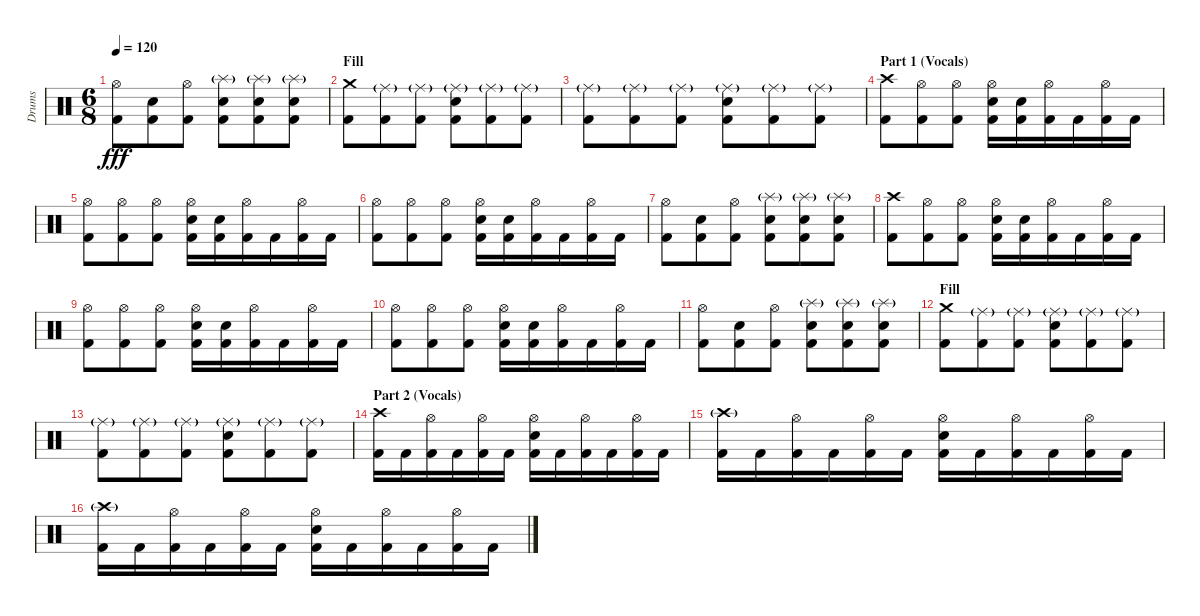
\track ("Drums" "Drums") {instrument percussion}
\staff {score}
\articulation defaults
\ts (6 8)
\tempo 120
\clef neutral
\ks c
("Hi-Hat (open)" "Kick (hit) 2").8{dy fff} ("Electric Snare (hit)" "Kick (hit) 2").8 ("Hi-Hat (open)" "Kick (hit) 2").8 ("Splash (hit)"{g} "Electric Snare (hit)" "Kick (hit) 2").8 ("Splash (hit)"{g} "Electric Snare (hit)" "Kick (hit) 2").8 ("Splash (hit)"{g} "Electric Snare (hit)" "Kick (hit) 2").8 |
\section ("" "Fill")
("Crash medium (hit)" "Kick (hit) 2").8 ("Ride (middle)"{g} "Kick (hit) 2").8 ("Ride (middle)"{g} "Kick (hit) 2").8 ("Ride (middle)"{g} "Electric Snare (hit)" "Kick (hit) 2").8 ("Ride (middle)"{g} "Kick (hit) 2").8 ("Ride (middle)"{g} "Kick (hit) 2").8 |
("Ride (middle)"{g} "Kick (hit) 2").8 ("Ride (middle)"{g} "Kick (hit) 2").8 ("Ride (middle)"{g} "Kick (hit) 2").8 ("Ride (middle)"{g} "Electric Snare (hit)" "Kick (hit) 2").8 ("Ride (middle)"{g} "Kick (hit) 2").8 ("Ride (middle)"{g} "Kick (hit) 2").8 |
\section ("" "Part 1 (Vocals)")
("Crash high (hit)" "Kick (hit) 2").8 ("Hi-Hat (open)" "Kick (hit) 2").8 ("Hi-Hat (open)" "Kick (hit) 2").8 ("Hi-Hat (open)" "Electric Snare (hit)" "Kick (hit) 2").16 ("Electric Snare (hit)" "Kick (hit) 2").16 ("Hi-Hat (open)" "Kick (hit) 2").16 "Kick (hit) 2".16 ("Hi-Hat (open)" "Kick (hit) 2").16 "Kick (hit) 2".16 |
("Hi-Hat (open)" "Kick (hit) 2").8 ("Hi-Hat (open)" "Kick (hit) 2").8 ("Hi-Hat (open)" "Kick (hit) 2").8 ("Hi-Hat (open)" "Electric Snare (hit)" "Kick (hit) 2").16 ("Electric Snare (hit)" "Kick (hit) 2").16 ("Hi-Hat (open)" "Kick (hit) 2").16 "Kick (hit) 2".16 ("Hi-Hat (open)" "Kick (hit) 2").16 "Kick (hit) 2".16 |
("Hi-Hat (open)" "Kick (hit) 2").8 ("Hi-Hat (open)" "Kick (hit) 2").8 ("Hi-Hat (open)" "Kick (hit) 2").8 ("Hi-Hat (open)" "Electric Snare (hit)" "Kick (hit) 2").16 ("Electric Snare (hit)" "Kick (hit) 2").16 ("Hi-Hat (open)" "Kick (hit) 2").16 "Kick (hit) 2".16 ("Hi-Hat (open)" "Kick (hit) 2").16 "Kick (hit) 2".16 |
("Hi-Hat (open)" "Kick (hit) 2").8 ("Electric Snare (hit)" "Kick (hit) 2").8 ("Hi-Hat (open)" "Kick (hit) 2").8 ("Splash (hit)"{g} "Electric Snare (hit)" "Kick (hit) 2").8 ("Splash (hit)"{g} "Electric Snare (hit)" "Kick (hit) 2").8 ("Splash (hit)"{g} "Electric Snare (hit)" "Kick (hit) 2").8 |
("Crash high (hit)" "Kick (hit) 2").8 ("Hi-Hat (open)" "Kick (hit) 2").8 ("Hi-Hat (open)" "Kick (hit) 2").8 ("Hi-Hat (open)" "Electric Snare (hit)" "Kick (hit) 2").16 ("Electric Snare (hit)" "Kick (hit) 2").16 ("Hi-Hat (open)" "Kick (hit) 2").16 "Kick (hit) 2".16 ("Hi-Hat (open)" "Kick (hit) 2").16 "Kick (hit) 2".16 |
("Hi-Hat (open)" "Kick (hit) 2").8 ("Hi-Hat (open)" "Kick (hit) 2").8 ("Hi-Hat (open)" "Kick (hit) 2").8 ("Hi-Hat (open)" "Electric Snare (hit)" "Kick (hit) 2").16 ("Electric Snare (hit)" "Kick (hit) 2").16 ("Hi-Hat (open)" "Kick (hit) 2").16 "Kick (hit) 2".16 ("Hi-Hat (open)" "Kick (hit) 2").16 "Kick (hit) 2".16 |
("Hi-Hat (open)" "Kick (hit) 2").8 ("Hi-Hat (open)" "Kick (hit) 2").8 ("Hi-Hat (open)" "Kick (hit) 2").8 ("Hi-Hat (open)" "Electric Snare (hit)" "Kick (hit) 2").16 ("Electric Snare (hit)" "Kick (hit) 2").16 ("Hi-Hat (open)" "Kick (hit) 2").16 "Kick (hit) 2".16 ("Hi-Hat (open)" "Kick (hit) 2").16 "Kick (hit) 2".16 |
("Hi-Hat (open)" "Kick (hit) 2").8 ("Electric Snare (hit)" "Kick (hit) 2").8 ("Hi-Hat (open)" "Kick (hit) 2").8 ("Splash (hit)"{g} "Electric Snare (hit)" "Kick (hit) 2").8 ("Splash (hit)"{g} "Electric Snare (hit)" "Kick (hit) 2").8 ("Splash (hit)"{g} "Electric Snare (hit)" "Kick (hit) 2").8 |
\section ("" "Fill")
("Crash medium (hit)" "Kick (hit) 2").8 ("Ride (middle)"{g} "Kick (hit) 2").8 ("Ride (middle)"{g} "Kick (hit) 2").8 ("Ride (middle)"{g} "Electric Snare (hit)" "Kick (hit) 2").8 ("Ride (middle)"{g} "Kick (hit) 2").8 ("Ride (middle)"{g} "Kick (hit) 2").8 |
("Ride (middle)"{g} "Kick (hit) 2").8 ("Ride (middle)"{g} "Kick (hit) 2").8 ("Ride (middle)"{g} "Kick (hit) 2").8 ("Ride (middle)"{g} "Electric Snare (hit)" "Kick (hit) 2").8 ("Ride (middle)"{g} "Kick (hit) 2").8 ("Ride (middle)"{g} "Kick (hit) 2").8 |
\section ("" "Part 2 (Vocals)")
("Crash high (hit)" "Kick (hit) 2").16 "Kick (hit) 2".16 ("Hi-Hat (open)" "Kick (hit) 2").16 "Kick (hit) 2".16 ("Hi-Hat (open)" "Kick (hit) 2").16 "Kick (hit) 2".16 ("Hi-Hat (open)" "Electric Snare (hit)" "Kick (hit) 2").16 "Kick (hit) 2".16 ("Hi-Hat (open)" "Kick (hit) 2").16 "Kick (hit) 2".16 ("Hi-Hat (open)" "Kick (hit) 2").16 "Kick (hit) 2".16 |
("Crash high (hit)"{g} "Kick (hit) 2").16 "Kick (hit) 2".16 ("Hi-Hat (open)" "Kick (hit) 2").16 "Kick (hit) 2".16 ("Hi-Hat (open)" "Kick (hit) 2").16 "Kick (hit) 2".16 ("Hi-Hat (open)" "Electric Snare (hit)" "Kick (hit) 2").16 "Kick (hit) 2".16 ("Hi-Hat (open)" "Kick (hit) 2").16 "Kick (hit) 2".16 ("Hi-Hat (open)" "Kick (hit) 2").16 "Kick (hit) 2".16 |
("Crash high (hit)"{g} "Kick (hit) 2").16 "Kick (hit) 2".16 ("Hi-Hat (open)" "Kick (hit) 2").16 "Kick (hit) 2".16 ("Hi-Hat (open)" "Kick (hit) 2").16 "Kick (hit) 2".16 ("Hi-Hat (open)" "Electric Snare (hit)" "Kick (hit) 2").16 "Kick (hit) 2".16 ("Hi-Hat (open)" "Kick (hit) 2").16 "Kick (hit) 2".16 ("Hi-Hat (open)" "Kick (hit) 2").16 "Kick (hit) 2".16
